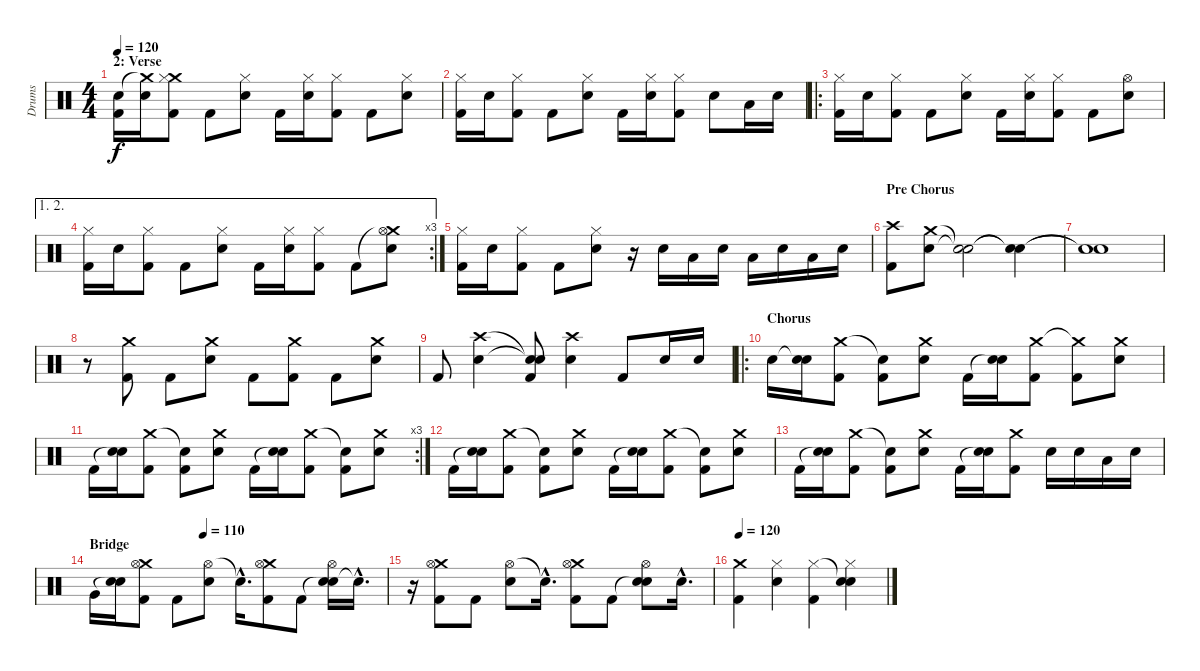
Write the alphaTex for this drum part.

\track ("Drums" "Drums") {instrument percussion}
\staff {score}
\articulation defaults
\ts (4 4)
\section ("" "2: Verse")
\tempo 120
\clef neutral
\ks c
("Electric Snare (hit)" "Kick (hit) 2").16{dy f} ("Crash medium (hit)"{t} "Electric Snare (hit)").16 ("Crash medium (hit)" "Hi-Hat (closed)" "Kick (hit) 2").8 "Kick (hit) 2".8 ("Hi-Hat (closed)" "Electric Snare (hit)").8 "Kick (hit) 2".16 ("Hi-Hat (closed)" "Electric Snare (hit)").16 ("Hi-Hat (closed)" "Kick (hit) 2").8 "Kick (hit) 2".8 ("Hi-Hat (closed)" "Electric Snare (hit)").8 |
("Hi-Hat (closed)" "Kick (hit) 2").16 "Electric Snare (hit)".16 ("Hi-Hat (closed)" "Kick (hit) 2").8 "Kick (hit) 2".8 ("Hi-Hat (closed)" "Electric Snare (hit)").8 "Kick (hit) 2".16 ("Hi-Hat (closed)" "Electric Snare (hit)").16 ("Hi-Hat (closed)" "Kick (hit) 2").8 "Electric Snare (hit)".8 "Low Tom (hit)".16 "Electric Snare (hit)".16 |
\ro
("Hi-Hat (closed)" "Kick (hit) 2").16 "Electric Snare (hit)".16 ("Hi-Hat (closed)" "Kick (hit) 2").8 "Kick (hit) 2".8 ("Hi-Hat (closed)" "Electric Snare (hit)").8 "Kick (hit) 2".16 ("Hi-Hat (closed)" "Electric Snare (hit)").16 ("Hi-Hat (closed)" "Kick (hit) 2").8 "Kick (hit) 2".8 ("Hi-Hat (open)" "Electric Snare (hit)").8 |
\ae (1 2)
\rc 3
("Hi-Hat (closed)" "Kick (hit) 2").16 "Electric Snare (hit)".16 ("Hi-Hat (closed)" "Kick (hit) 2").8 "Kick (hit) 2".8 ("Hi-Hat (closed)" "Electric Snare (hit)").8 "Kick (hit) 2".16 ("Hi-Hat (closed)" "Electric Snare (hit)").16 ("Hi-Hat (closed)" "Kick (hit) 2").8 "Kick (hit) 2".8 ("Crash medium (hit)"{t} "Hi-Hat (open)" "Electric Snare (hit)").8 |
("Hi-Hat (closed)" "Kick (hit) 2").16 "Electric Snare (hit)".16 ("Hi-Hat (closed)" "Kick (hit) 2").8 "Kick (hit) 2".8 ("Hi-Hat (closed)" "Electric Snare (hit)").8 r.16 "Electric Snare (hit)".16 "Low Tom (hit)".16 "Electric Snare (hit)".16 "Low Tom (hit)".16 "Electric Snare (hit)".16 "Low Floor Tom (hit)".16 "Electric Snare (hit)".16 |
\section ("" "Pre Chorus")
("Crash high (hit)" "Kick (hit) 2").8 ("Crash medium (hit)" "Electric Snare (hit)").8 ("Snare (hit)"{t} "Snare (hit)"{t}).2 ("Snare (hit)"{t} "Snare (hit)"{t}).4 |
("Snare (hit)"{t} "Snare (hit)"{t}).1 |
r.8 ("Crash medium (hit)" "Kick (hit) 2").8 "Kick (hit) 2".8 ("Crash medium (hit)" "Electric Snare (hit)").8 "Kick (hit) 2".8 ("Crash medium (hit)" "Kick (hit) 2").8 "Kick (hit) 2".8 ("Crash medium (hit)" "Electric Snare (hit)").8 |
"Kick (hit) 2".8 ("Crash high (hit)" "Electric Snare (hit)").4 ("Snare (hit)"{t} "Snare (hit)"{t} "Kick (hit) 2").8 ("Crash high (hit)" "Electric Snare (hit)").4 "Kick (hit) 2".8 "Electric Snare (hit)".16 "Electric Snare (hit)".16 |
\ro
\section ("" "Chorus")
"Electric Snare (hit)".16 ("Snare (hit)"{t} "Electric Snare (hit)").16 ("Crash medium (hit)" "Kick (hit) 2").8 ("Snare (hit)"{t} "Kick (hit) 2").8 ("Crash medium (hit)" "Electric Snare (hit)").8 "Kick (hit) 2".16 ("Snare (hit)"{t} "Electric Snare (hit)").16 ("Crash medium (hit)" "Kick (hit) 2").8 ("Crash medium (hit)"{t} "Kick (hit) 2").8 ("Crash medium (hit)" "Electric Snare (hit)").8 |
\rc 3 "Kick (hit) 2".16
("Snare (hit)"{t} "Electric Snare (hit)").16 ("Crash medium (hit)" "Kick (hit) 2").8 ("Snare (hit)"{t} "Kick (hit) 2").8 ("Crash medium (hit)" "Electric Snare (hit)").8 "Kick (hit) 2".16 ("Snare (hit)"{t} "Electric Snare (hit)").16 ("Crash medium (hit)" "Kick (hit) 2").8 ("Snare (hit)"{t} "Kick (hit) 2").8 ("Crash medium (hit)" "Electric Snare (hit)").8 |
"Kick (hit) 2".16 ("Snare (hit)"{t} "Electric Snare (hit)").16 ("Crash medium (hit)" "Kick (hit) 2").8 ("Snare (hit)"{t} "Kick (hit) 2").8 ("Crash medium (hit)" "Electric Snare (hit)").8 "Kick (hit) 2".16 ("Snare (hit)"{t} "Electric Snare (hit)").16 ("Crash medium (hit)" "Kick (hit) 2").8 ("Snare (hit)"{t} "Kick (hit) 2").8 ("Crash medium (hit)" "Electric Snare (hit)").8 |
"Kick (hit) 2".16 ("Snare (hit)"{t} "Electric Snare (hit)").16 ("Crash medium (hit)" "Kick (hit) 2").8 ("Snare (hit)"{t} "Kick (hit) 2").8 ("Crash medium (hit)" "Electric Snare (hit)").8 "Kick (hit) 2".16 ("Snare (hit)"{t} "Electric Snare (hit)").16 ("Crash medium (hit)" "Kick (hit) 2").8 "Electric Snare (hit)".16 "Electric Snare (hit)".16 "Low Tom (hit)".16 "Electric Snare (hit)".16 |
\section ("" "Bridge")
\tempo (110 0.375)
"Very Low Tom (hit)".16 ("Snare (hit)"{t} "Electric Snare (hit)").16 ("Crash medium (hit)" "Hi-Hat (open)" "Kick (hit) 2").8 "Kick (hit) 2".8 ("Hi-Hat (open)" "Electric Snare (hit)").8 "Snare (hit)"{hac t}.16{d} ("Crash medium (hit)" "Hi-Hat (open)" "Kick (hit) 2").8 "Kick (hit) 2".8 ("Snare (hit)"{t} "Hi-Hat (open)" "Electric Snare (hit)").16 "Snare (hit)"{hac t}.16{d} |
r.16 ("Crash medium (hit)" "Hi-Hat (open)" "Kick (hit) 2").8 "Kick (hit) 2".8 ("Hi-Hat (open)" "Electric Snare (hit)").8 "Snare (hit)"{hac t}.16{d} ("Crash medium (hit)" "Hi-Hat (open)" "Kick (hit) 2").8 "Kick (hit) 2".8 ("Snare (hit)"{t} "Hi-Hat (open)" "Electric Snare (hit)").8 "Electric Snare (hit)"{hac}.16{d} |
\tempo 120
("Crash medium (hit)" "Kick (hit) 2").4 ("Hi-Hat (closed)" "Electric Snare (hit)").4 ("Hi-Hat (closed)" "Kick (hit) 2").4 ("Snare (hit)"{t} "Hi-Hat (closed)" "Electric Snare (hit)").4
